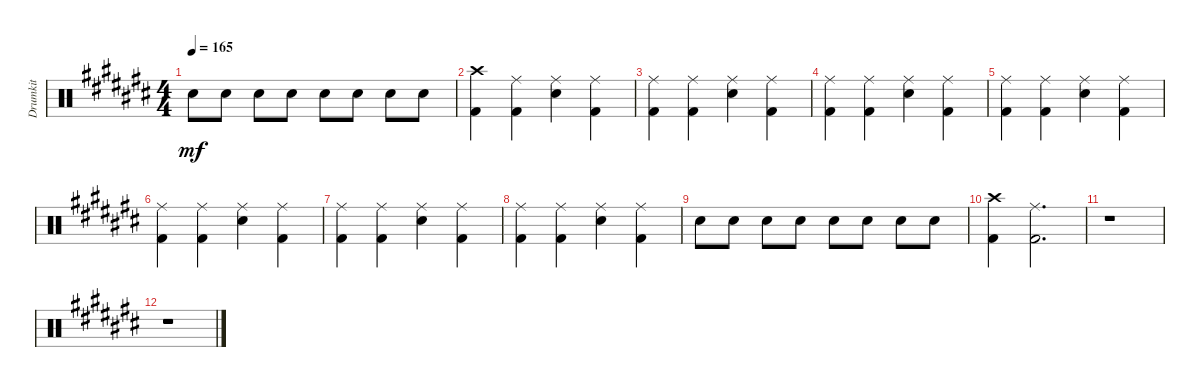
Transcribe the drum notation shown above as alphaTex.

\track ("Drumkit" "Drumkit") {instrument percussion}
\staff {score}
\articulation defaults
\ts (4 4)
\tempo 165
\clef neutral
\ks c# "Snare (hit) 2".8{dy mf} "Snare (hit) 2".8 "Snare (hit) 2".8 "Snare (hit) 2".8 "Snare (hit) 2".8 "Snare (hit) 2".8 "Snare (hit) 2".8 "Snare (hit) 2".8
|
("Kick (hit) 2" "Crash high (hit)").4 ("Kick (hit) 2" "Ride (middle)").4 ("Snare (hit) 2" "Ride (middle)").4 ("Kick (hit) 2" "Ride (middle)").4 |
("Kick (hit) 2" "Ride (middle)").4 ("Kick (hit) 2" "Ride (middle)").4 ("Snare (hit) 2" "Ride (middle)").4 ("Kick (hit) 2" "Ride (middle)").4 |
("Kick (hit) 2" "Ride (middle)").4 ("Kick (hit) 2" "Ride (middle)").4 ("Snare (hit) 2" "Ride (middle)").4 ("Kick (hit) 2" "Ride (middle)").4 |
("Kick (hit) 2" "Ride (middle)").4 ("Kick (hit) 2" "Ride (middle)").4 ("Snare (hit) 2" "Ride (middle)").4 ("Kick (hit) 2" "Ride (middle)").4 |
("Kick (hit) 2" "Ride (middle)").4 ("Kick (hit) 2" "Ride (middle)").4 ("Snare (hit) 2" "Ride (middle)").4 ("Kick (hit) 2" "Ride (middle)").4 |
("Kick (hit) 2" "Ride (middle)").4 ("Kick (hit) 2" "Ride (middle)").4 ("Snare (hit) 2" "Ride (middle)").4 ("Kick (hit) 2" "Ride (middle)").4 |
("Kick (hit) 2" "Ride (middle)").4 ("Kick (hit) 2" "Ride (middle)").4 ("Snare (hit) 2" "Ride (middle)").4 ("Kick (hit) 2" "Ride (middle)").4 |
"Snare (hit) 2".8 "Snare (hit) 2".8 "Snare (hit) 2".8 "Snare (hit) 2".8 "Snare (hit) 2".8 "Snare (hit) 2".8 "Snare (hit) 2".8 "Snare (hit) 2".8 |
("Kick (hit) 2" "Crash high (hit)").4 ("Kick (hit) 2" "Ride (middle)").2{d} |
r.1 |
r.1
